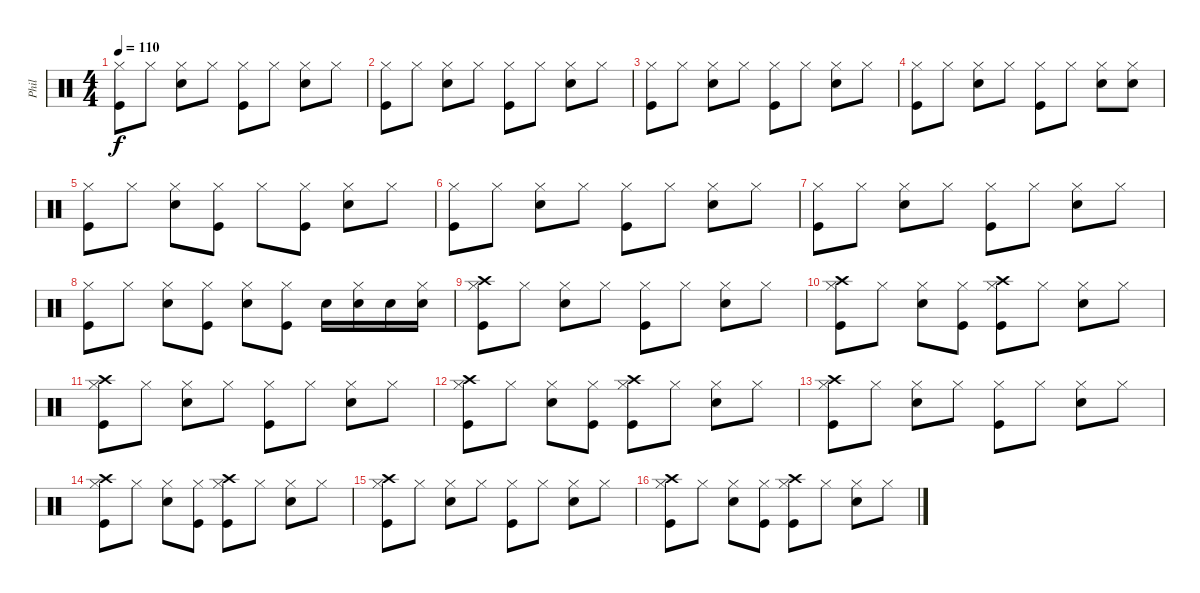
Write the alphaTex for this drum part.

\track ("Phil" "Phil") {instrument percussion}
\staff {score}
\articulation defaults
\ts (4 4)
\tempo 110
\clef neutral
\ks c
("Hi-Hat (closed)" "Kick (hit)").8{dy f} "Hi-Hat (closed)".8 ("Hi-Hat (closed)" "Snare (hit) 2").8 "Hi-Hat (closed)".8 ("Hi-Hat (closed)" "Kick (hit)").8 "Hi-Hat (closed)".8 ("Hi-Hat (closed)" "Snare (hit) 2").8 "Hi-Hat (closed)".8 |
("Hi-Hat (closed)" "Kick (hit)").8 "Hi-Hat (closed)".8 ("Hi-Hat (closed)" "Snare (hit) 2").8 "Hi-Hat (closed)".8 ("Hi-Hat (closed)" "Kick (hit)").8 "Hi-Hat (closed)".8 ("Hi-Hat (closed)" "Snare (hit) 2").8 "Hi-Hat (closed)".8 |
("Hi-Hat (closed)" "Kick (hit)").8 "Hi-Hat (closed)".8 ("Hi-Hat (closed)" "Snare (hit) 2").8 "Hi-Hat (closed)".8 ("Hi-Hat (closed)" "Kick (hit)").8 "Hi-Hat (closed)".8 ("Hi-Hat (closed)" "Snare (hit) 2").8 "Hi-Hat (closed)".8 |
("Hi-Hat (closed)" "Kick (hit)").8 "Hi-Hat (closed)".8 ("Hi-Hat (closed)" "Snare (hit) 2").8 "Hi-Hat (closed)".8 ("Hi-Hat (closed)" "Kick (hit)").8 "Hi-Hat (closed)".8 ("Hi-Hat (closed)" "Snare (hit) 2").8 ("Hi-Hat (closed)" "Snare (hit) 2").8 |
("Hi-Hat (closed)" "Kick (hit)").8 "Hi-Hat (closed)".8 ("Hi-Hat (closed)" "Snare (hit) 2").8 ("Hi-Hat (closed)" "Kick (hit)").8 "Hi-Hat (closed)".8 ("Hi-Hat (closed)" "Kick (hit)").8 ("Hi-Hat (closed)" "Snare (hit) 2").8 "Hi-Hat (closed)".8 |
("Hi-Hat (closed)" "Kick (hit)").8 "Hi-Hat (closed)".8 ("Hi-Hat (closed)" "Snare (hit) 2").8 "Hi-Hat (closed)".8 ("Hi-Hat (closed)" "Kick (hit)").8 "Hi-Hat (closed)".8 ("Hi-Hat (closed)" "Snare (hit) 2").8 "Hi-Hat (closed)".8 |
("Hi-Hat (closed)" "Kick (hit)").8 "Hi-Hat (closed)".8 ("Hi-Hat (closed)" "Snare (hit) 2").8 "Hi-Hat (closed)".8 ("Hi-Hat (closed)" "Kick (hit)").8 "Hi-Hat (closed)".8 ("Hi-Hat (closed)" "Snare (hit) 2").8 "Hi-Hat (closed)".8 |
("Hi-Hat (closed)" "Kick (hit)").8 "Hi-Hat (closed)".8 ("Hi-Hat (closed)" "Snare (hit) 2").8 ("Hi-Hat (closed)" "Kick (hit)").8 ("Hi-Hat (closed)" "Snare (hit) 2").8 ("Hi-Hat (closed)" "Kick (hit)").8 "Snare (hit) 2".16 ("Hi-Hat (closed)" "Snare (hit) 2").16 "Snare (hit) 2".16 ("Hi-Hat (closed)" "Snare (hit) 2").16 |
("Hi-Hat (closed)" "Crash high (hit)" "Kick (hit)").8 "Hi-Hat (closed)".8 ("Hi-Hat (closed)" "Snare (hit) 2").8 "Hi-Hat (closed)".8 ("Hi-Hat (closed)" "Kick (hit)").8 "Hi-Hat (closed)".8 ("Hi-Hat (closed)" "Snare (hit) 2").8 "Hi-Hat (closed)".8 |
("Hi-Hat (closed)" "Crash high (hit)" "Kick (hit)").8 "Hi-Hat (closed)".8 ("Hi-Hat (closed)" "Snare (hit) 2").8 ("Hi-Hat (closed)" "Kick (hit)").8 ("Hi-Hat (closed)" "Crash high (hit)" "Kick (hit)").8 "Hi-Hat (closed)".8 ("Hi-Hat (closed)" "Snare (hit) 2").8 "Hi-Hat (closed)".8 |
("Hi-Hat (closed)" "Crash high (hit)" "Kick (hit)").8 "Hi-Hat (closed)".8 ("Hi-Hat (closed)" "Snare (hit) 2").8 "Hi-Hat (closed)".8 ("Hi-Hat (closed)" "Kick (hit)").8 "Hi-Hat (closed)".8 ("Hi-Hat (closed)" "Snare (hit) 2").8 "Hi-Hat (closed)".8 |
("Hi-Hat (closed)" "Crash high (hit)" "Kick (hit)").8 "Hi-Hat (closed)".8 ("Hi-Hat (closed)" "Snare (hit) 2").8 ("Hi-Hat (closed)" "Kick (hit)").8 ("Hi-Hat (closed)" "Crash high (hit)" "Kick (hit)").8 "Hi-Hat (closed)".8 ("Hi-Hat (closed)" "Snare (hit) 2").8 "Hi-Hat (closed)".8 |
("Hi-Hat (closed)" "Crash high (hit)" "Kick (hit)").8 "Hi-Hat (closed)".8 ("Hi-Hat (closed)" "Snare (hit) 2").8 "Hi-Hat (closed)".8 ("Hi-Hat (closed)" "Kick (hit)").8 "Hi-Hat (closed)".8 ("Hi-Hat (closed)" "Snare (hit) 2").8 "Hi-Hat (closed)".8 |
("Hi-Hat (closed)" "Crash high (hit)" "Kick (hit)").8 "Hi-Hat (closed)".8 ("Hi-Hat (closed)" "Snare (hit) 2").8 ("Hi-Hat (closed)" "Kick (hit)").8 ("Hi-Hat (closed)" "Crash high (hit)" "Kick (hit)").8 "Hi-Hat (closed)".8 ("Hi-Hat (closed)" "Snare (hit) 2").8 "Hi-Hat (closed)".8 |
("Hi-Hat (closed)" "Crash high (hit)" "Kick (hit)").8 "Hi-Hat (closed)".8 ("Hi-Hat (closed)" "Snare (hit) 2").8 "Hi-Hat (closed)".8 ("Hi-Hat (closed)" "Kick (hit)").8 "Hi-Hat (closed)".8 ("Hi-Hat (closed)" "Snare (hit) 2").8 "Hi-Hat (closed)".8 |
("Hi-Hat (closed)" "Crash high (hit)" "Kick (hit)").8 "Hi-Hat (closed)".8 ("Hi-Hat (closed)" "Snare (hit) 2").8 ("Hi-Hat (closed)" "Kick (hit)").8 ("Hi-Hat (closed)" "Crash high (hit)" "Kick (hit)").8 "Hi-Hat (closed)".8 ("Hi-Hat (closed)" "Snare (hit) 2").8 "Hi-Hat (closed)".8
